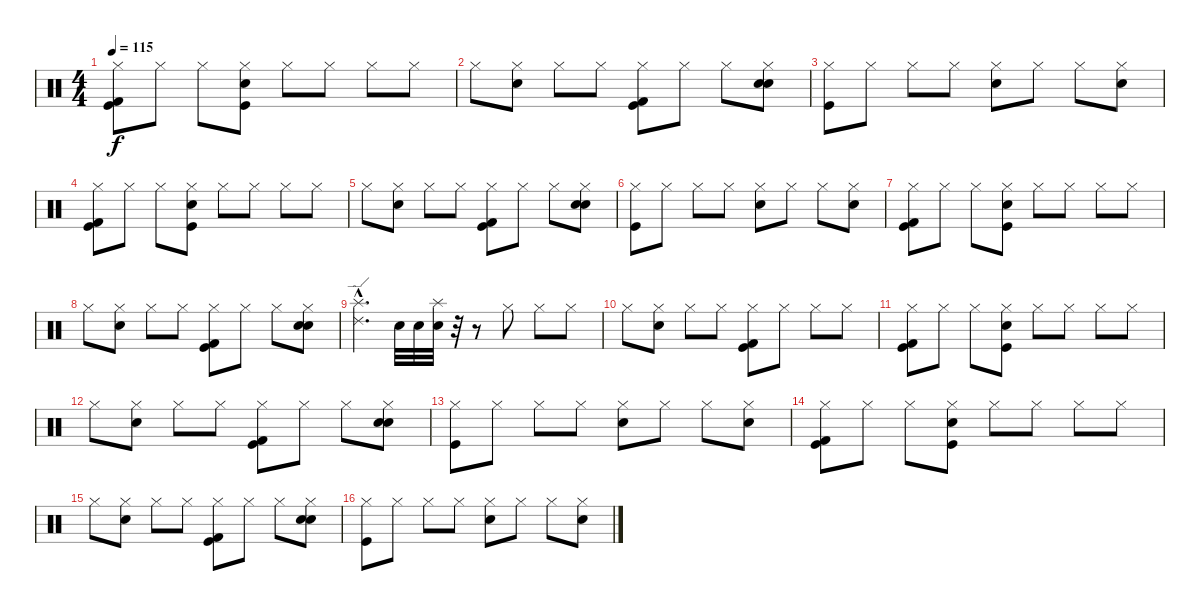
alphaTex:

\track "" {instrument percussion}
\staff {score}
\articulation defaults
\ts (4 4)
\tempo 115
\clef neutral
\ks c
("Kick (hit) 2" "Hi-Hat (closed)" "Kick (hit)").8{dy f} "Hi-Hat (closed)".8 "Hi-Hat (closed)".8 ("Electric Snare (hit)" "Hi-Hat (closed)" "Kick (hit)").8 "Hi-Hat (closed)".8 "Hi-Hat (closed)".8 "Hi-Hat (closed)".8 "Hi-Hat (closed)".8 |
"Hi-Hat (closed)".8 ("Hi-Hat (closed)" "Electric Snare (hit)").8 "Hi-Hat (closed)".8 "Hi-Hat (closed)".8 ("Kick (hit) 2" "Hi-Hat (closed)" "Kick (hit)").8 "Hi-Hat (closed)".8 "Hi-Hat (closed)".8 ("Electric Snare (hit)" "Hi-Hat (closed)" "Electric Snare (hit)").8 |
("Hi-Hat (closed)" "Kick (hit)").8 "Hi-Hat (closed)".8 "Hi-Hat (closed)".8 "Hi-Hat (closed)".8 ("Hi-Hat (closed)" "Electric Snare (hit)").8 "Hi-Hat (closed)".8 "Hi-Hat (closed)".8 ("Hi-Hat (closed)" "Electric Snare (hit)").8 |
("Kick (hit) 2" "Hi-Hat (closed)" "Kick (hit)").8 "Hi-Hat (closed)".8 "Hi-Hat (closed)".8 ("Electric Snare (hit)" "Hi-Hat (closed)" "Kick (hit)").8 "Hi-Hat (closed)".8 "Hi-Hat (closed)".8 "Hi-Hat (closed)".8 "Hi-Hat (closed)".8 |
"Hi-Hat (closed)".8 ("Hi-Hat (closed)" "Electric Snare (hit)").8 "Hi-Hat (closed)".8 "Hi-Hat (closed)".8 ("Kick (hit) 2" "Hi-Hat (closed)" "Kick (hit)").8 "Hi-Hat (closed)".8 "Hi-Hat (closed)".8 ("Electric Snare (hit)" "Hi-Hat (closed)" "Electric Snare (hit)").8 |
("Hi-Hat (closed)" "Kick (hit)").8 "Hi-Hat (closed)".8 "Hi-Hat (closed)".8 "Hi-Hat (closed)".8 ("Hi-Hat (closed)" "Electric Snare (hit)").8 "Hi-Hat (closed)".8 "Hi-Hat (closed)".8 ("Hi-Hat (closed)" "Electric Snare (hit)").8 |
("Kick (hit) 2" "Hi-Hat (closed)" "Kick (hit)").8 "Hi-Hat (closed)".8 "Hi-Hat (closed)".8 ("Electric Snare (hit)" "Hi-Hat (closed)" "Kick (hit)").8 "Hi-Hat (closed)".8 "Hi-Hat (closed)".8 "Hi-Hat (closed)".8 "Hi-Hat (closed)".8 |
"Hi-Hat (closed)".8 ("Hi-Hat (closed)" "Electric Snare (hit)").8 "Hi-Hat (closed)".8 "Hi-Hat (closed)".8 ("Kick (hit) 2" "Hi-Hat (closed)" "Kick (hit)").8 "Hi-Hat (closed)".8 "Hi-Hat (closed)".8 ("Electric Snare (hit)" "Hi-Hat (closed)" "Electric Snare (hit)").8 |
("Splash (hit)"{hac} "Ride (edge) 2"{hac}).4{d} "Snare (hit) 2".32 "Snare (hit) 2".32 ("Electric Snare (hit)" "Splash (hit)").32 r.32 r.8 "Hi-Hat (closed)".8 "Hi-Hat (closed)".8 "Hi-Hat (closed)".8 |
"Hi-Hat (closed)".8 ("Hi-Hat (closed)" "Electric Snare (hit)").8 "Hi-Hat (closed)".8 "Hi-Hat (closed)".8 ("Kick (hit) 2" "Hi-Hat (closed)" "Kick (hit)").8 "Hi-Hat (closed)".8 "Hi-Hat (closed)".8 "Hi-Hat (closed)".8 |
("Kick (hit) 2" "Hi-Hat (closed)" "Kick (hit)").8 "Hi-Hat (closed)".8 "Hi-Hat (closed)".8 ("Electric Snare (hit)" "Hi-Hat (closed)" "Kick (hit)").8 "Hi-Hat (closed)".8 "Hi-Hat (closed)".8 "Hi-Hat (closed)".8 "Hi-Hat (closed)".8 |
"Hi-Hat (closed)".8 ("Hi-Hat (closed)" "Electric Snare (hit)").8 "Hi-Hat (closed)".8 "Hi-Hat (closed)".8 ("Kick (hit) 2" "Hi-Hat (closed)" "Kick (hit)").8 "Hi-Hat (closed)".8 "Hi-Hat (closed)".8 ("Electric Snare (hit)" "Hi-Hat (closed)" "Electric Snare (hit)").8 |
("Hi-Hat (closed)" "Kick (hit)").8 "Hi-Hat (closed)".8 "Hi-Hat (closed)".8 "Hi-Hat (closed)".8 ("Hi-Hat (closed)" "Electric Snare (hit)").8 "Hi-Hat (closed)".8 "Hi-Hat (closed)".8 ("Hi-Hat (closed)" "Electric Snare (hit)").8 |
("Kick (hit) 2" "Hi-Hat (closed)" "Kick (hit)").8 "Hi-Hat (closed)".8 "Hi-Hat (closed)".8 ("Electric Snare (hit)" "Hi-Hat (closed)" "Kick (hit)").8 "Hi-Hat (closed)".8 "Hi-Hat (closed)".8 "Hi-Hat (closed)".8 "Hi-Hat (closed)".8 |
"Hi-Hat (closed)".8 ("Hi-Hat (closed)" "Electric Snare (hit)").8 "Hi-Hat (closed)".8 "Hi-Hat (closed)".8 ("Kick (hit) 2" "Hi-Hat (closed)" "Kick (hit)").8 "Hi-Hat (closed)".8 "Hi-Hat (closed)".8 ("Electric Snare (hit)" "Hi-Hat (closed)" "Electric Snare (hit)").8 |
("Hi-Hat (closed)" "Kick (hit)").8 "Hi-Hat (closed)".8 "Hi-Hat (closed)".8 "Hi-Hat (closed)".8 ("Hi-Hat (closed)" "Electric Snare (hit)").8 "Hi-Hat (closed)".8 "Hi-Hat (closed)".8 ("Hi-Hat (closed)" "Electric Snare (hit)").8
